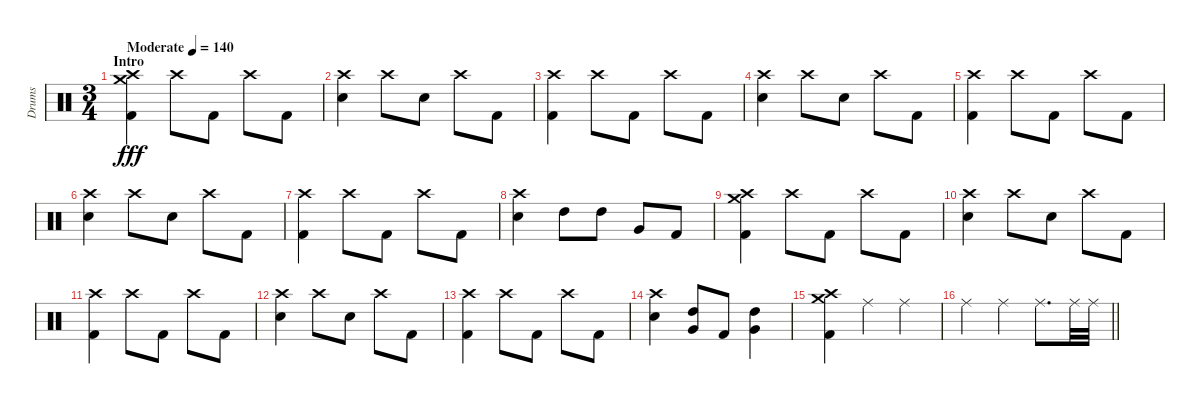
\track ("Drums" "Drums") {instrument percussion}
\staff {score}
\articulation defaults
\ts (3 4)
\section ("" "Intro")
\tempo (140 "Moderate")
\clef neutral
\ks c
("Kick (hit) 2" "Crash high (hit)" "Crash medium (hit)").4{dy fff} "Crash high (hit)".8 "Kick (hit) 2".8 "Crash high (hit)".8 "Kick (hit) 2".8 |
("Electric Snare (hit)" "Crash high (hit)").4 "Crash high (hit)".8 "Electric Snare (hit)".8 "Crash high (hit)".8 "Kick (hit) 2".8 |
("Kick (hit) 2" "Crash high (hit)").4 "Crash high (hit)".8 "Kick (hit) 2".8 "Crash high (hit)".8 "Kick (hit) 2".8 |
("Electric Snare (hit)" "Crash high (hit)").4 "Crash high (hit)".8 "Electric Snare (hit)".8 "Crash high (hit)".8 "Kick (hit) 2".8 |
("Kick (hit) 2" "Crash high (hit)").4 "Crash high (hit)".8 "Kick (hit) 2".8 "Crash high (hit)".8 "Kick (hit) 2".8 |
("Electric Snare (hit)" "Crash high (hit)").4 "Crash high (hit)".8 "Electric Snare (hit)".8 "Crash high (hit)".8 "Kick (hit) 2".8 |
("Kick (hit) 2" "Crash high (hit)").4 "Crash high (hit)".8 "Kick (hit) 2".8 "Crash high (hit)".8 "Kick (hit) 2".8 |
("Electric Snare (hit)" "Crash high (hit)").4 "High Tom (hit)".8 "High Tom (hit)".8 "Very Low Tom (hit)".8 "Kick (hit) 2".8 |
("Kick (hit) 2" "Crash high (hit)" "Crash medium (hit)").4 "Crash high (hit)".8 "Kick (hit) 2".8 "Crash high (hit)".8 "Kick (hit) 2".8 |
("Electric Snare (hit)" "Crash high (hit)").4 "Crash high (hit)".8 "Electric Snare (hit)".8 "Crash high (hit)".8 "Kick (hit) 2".8 |
("Kick (hit) 2" "Crash high (hit)").4 "Crash high (hit)".8 "Kick (hit) 2".8 "Crash high (hit)".8 "Kick (hit) 2".8 |
("Electric Snare (hit)" "Crash high (hit)").4 "Crash high (hit)".8 "Electric Snare (hit)".8 "Crash high (hit)".8 "Kick (hit) 2".8 |
("Kick (hit) 2" "Crash high (hit)").4 "Crash high (hit)".8 "Kick (hit) 2".8 "Crash high (hit)".8 "Kick (hit) 2".8 |
("Electric Snare (hit)" "Crash high (hit)").4 ("Very Low Tom (hit)" "High Tom (hit)").8 "Kick (hit) 2".8 ("Very Low Tom (hit)" "High Tom (hit)").4 |
("Kick (hit) 2" "Crash high (hit)" "Crash medium (hit)").4 "Ride (middle)".4 "Ride (middle)".4 |
\barLineRight lightlight "Ride (middle)".4 "Ride (middle)".4 "Ride (middle)".8{d} "Ride (middle)".32 "Ride (middle)".32
